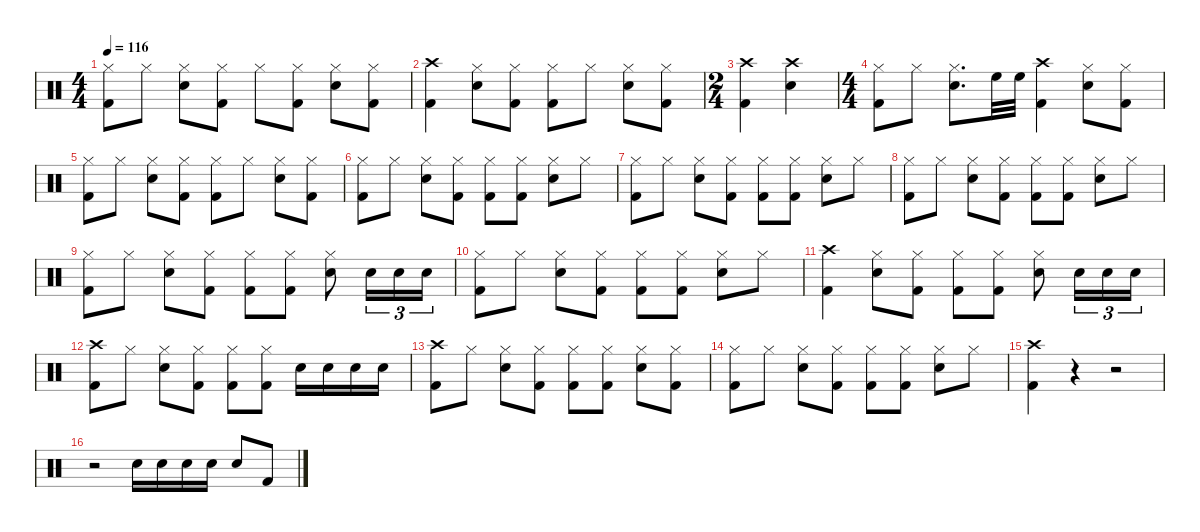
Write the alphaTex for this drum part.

\defaultSystemsLayout 4
\hideDynamics
\bracketExtendMode nobrackets
\singleTrackTrackNamePolicy hidden
\multiTrackTrackNamePolicy hidden
\firstSystemTrackNameMode fullname
\firstSystemTrackNameOrientation horizontal
\otherSystemsTrackNameOrientation horizontal
\track ("Drums" "drm.") {instrument percussion}
\staff {score}
\articulation defaults
\ts (4 4)
\tempo 116
\clef neutral
\ks c
("Hi-Hat (closed)" "Kick (hit) 2").8{dy f beam Down} "Hi-Hat (closed)".8{beam Down} ("Hi-Hat (closed)" "Snare (hit) 2").8{beam Down} ("Hi-Hat (closed)" "Kick (hit) 2").8{beam Down} "Hi-Hat (closed)".8{beam Down} ("Hi-Hat (closed)" "Kick (hit) 2").8{beam Down} ("Hi-Hat (closed)" "Snare (hit) 2").8{beam Down} ("Hi-Hat (closed)" "Kick (hit) 2").8{beam Down} |
("Crash high (hit)" "Kick (hit) 2").4{beam Down} ("Hi-Hat (closed)" "Snare (hit) 2").8{beam Down} ("Hi-Hat (closed)" "Kick (hit) 2").8{beam Down} ("Hi-Hat (closed)" "Kick (hit) 2").8{beam Down} "Hi-Hat (closed)".8{beam Down} ("Hi-Hat (closed)" "Snare (hit) 2").8{beam Down} ("Hi-Hat (closed)" "Kick (hit) 2").8{beam Down} |
\ts (2 4)
("Crash high (hit)" "Kick (hit) 2").4{beam Down} ("Crash high (hit)" "Snare (hit) 2").4{beam Down} |
\ts (4 4)
("Hi-Hat (closed)" "Kick (hit) 2").8{beam Down} "Hi-Hat (closed)".8{beam Down} ("Hi-Hat (closed)" "Snare (hit) 2").8{d beam Down} "High Floor Tom (hit)".32{beam Down} "High Floor Tom (hit)".32{beam Down} ("Crash high (hit)" "Kick (hit) 2").4{beam Down} ("Hi-Hat (closed)" "Snare (hit) 2").8{beam Down} ("Hi-Hat (closed)" "Kick (hit) 2").8{beam Down} |
("Hi-Hat (closed)" "Kick (hit) 2").8{beam Down} "Hi-Hat (closed)".8{beam Down} ("Hi-Hat (closed)" "Snare (hit) 2").8{beam Down} ("Hi-Hat (closed)" "Kick (hit) 2").8{beam Down} ("Hi-Hat (closed)" "Kick (hit) 2").8{beam Down} "Hi-Hat (closed)".8{beam Down} ("Hi-Hat (closed)" "Snare (hit) 2").8{beam Down} ("Hi-Hat (closed)" "Kick (hit) 2").8{beam Down} |
("Hi-Hat (closed)" "Kick (hit) 2").8{beam Down} "Hi-Hat (closed)".8{beam Down} ("Hi-Hat (closed)" "Snare (hit) 2").8{beam Down} ("Hi-Hat (closed)" "Kick (hit) 2").8{beam Down} ("Hi-Hat (closed)" "Kick (hit) 2").8{beam Down} ("Hi-Hat (closed)" "Kick (hit) 2").8{beam Down} ("Hi-Hat (closed)" "Snare (hit) 2").8{beam Down} "Hi-Hat (closed)".8{beam Down} |
("Hi-Hat (closed)" "Kick (hit) 2").8{beam Down} "Hi-Hat (closed)".8{beam Down} ("Hi-Hat (closed)" "Snare (hit) 2").8{beam Down} ("Hi-Hat (closed)" "Kick (hit) 2").8{beam Down} ("Hi-Hat (closed)" "Kick (hit) 2").8{beam Down} ("Hi-Hat (closed)" "Kick (hit) 2").8{beam Down} ("Hi-Hat (closed)" "Snare (hit) 2").8{beam Down} "Hi-Hat (closed)".8{beam Down} |
("Hi-Hat (closed)" "Kick (hit) 2").8{beam Down} "Hi-Hat (closed)".8{beam Down} ("Hi-Hat (closed)" "Snare (hit) 2").8{beam Down} ("Hi-Hat (closed)" "Kick (hit) 2").8{beam Down} ("Hi-Hat (closed)" "Kick (hit) 2").8{beam Down} ("Hi-Hat (closed)" "Kick (hit) 2").8{beam Down} ("Hi-Hat (closed)" "Snare (hit) 2").8{beam Down} "Hi-Hat (closed)".8{beam Down} |
("Hi-Hat (closed)" "Kick (hit) 2").8{beam Down} "Hi-Hat (closed)".8{beam Down} ("Hi-Hat (closed)" "Snare (hit) 2").8{beam Down} ("Hi-Hat (closed)" "Kick (hit) 2").8{beam Down} ("Hi-Hat (closed)" "Kick (hit) 2").8{beam Down} ("Hi-Hat (closed)" "Kick (hit) 2").8{beam Down} ("Hi-Hat (closed)" "Snare (hit) 2").8{beam Down} "Snare (hit) 2".16{tu (3 2) beam Down} "Snare (hit) 2".16{tu (3 2) beam Down} "Snare (hit) 2".16{tu (3 2) beam Down} |
("Hi-Hat (closed)" "Kick (hit) 2").8{beam Down} "Hi-Hat (closed)".8{beam Down} ("Hi-Hat (closed)" "Snare (hit) 2").8{beam Down} ("Hi-Hat (closed)" "Kick (hit) 2").8{beam Down} ("Hi-Hat (closed)" "Kick (hit) 2").8{beam Down} ("Hi-Hat (closed)" "Kick (hit) 2").8{beam Down} ("Hi-Hat (closed)" "Snare (hit) 2").8{beam Down} "Hi-Hat (closed)".8{beam Down} |
("Crash high (hit)" "Kick (hit) 2").4{beam Down} ("Hi-Hat (closed)" "Snare (hit) 2").8{beam Down} ("Hi-Hat (closed)" "Kick (hit) 2").8{beam Down} ("Hi-Hat (closed)" "Kick (hit) 2").8{beam Down} ("Hi-Hat (closed)" "Kick (hit) 2").8{beam Down} ("Hi-Hat (closed)" "Snare (hit) 2").8{beam Down} "Snare (hit) 2".16{tu (3 2) beam Down} "Snare (hit) 2".16{tu (3 2) beam Down} "Snare (hit) 2".16{tu (3 2) beam Down} |
("Crash high (hit)" "Kick (hit) 2").8{beam Down} "Hi-Hat (closed)".8{beam Down} ("Hi-Hat (closed)" "Snare (hit) 2").8{beam Down} ("Hi-Hat (closed)" "Kick (hit) 2").8{beam Down} ("Hi-Hat (closed)" "Kick (hit) 2").8{beam Down} ("Hi-Hat (closed)" "Kick (hit) 2").8{beam Down} "Snare (hit) 2".16{beam Down} "Snare (hit) 2".16{beam Down} "Snare (hit) 2".16{beam Down} "Snare (hit) 2".16{beam Down} |
("Crash high (hit)" "Kick (hit) 2").8{beam Down} "Hi-Hat (closed)".8{beam Down} ("Hi-Hat (closed)" "Snare (hit) 2").8{beam Down} ("Hi-Hat (closed)" "Kick (hit) 2").8{beam Down} ("Hi-Hat (closed)" "Kick (hit) 2").8{beam Down} ("Hi-Hat (closed)" "Kick (hit) 2").8{beam Down} ("Hi-Hat (closed)" "Snare (hit) 2").8{beam Down} ("Hi-Hat (closed)" "Kick (hit) 2").8{beam Down} |
("Hi-Hat (closed)" "Kick (hit) 2").8{beam Down} "Hi-Hat (closed)".8{beam Down} ("Hi-Hat (closed)" "Snare (hit) 2").8{beam Down} ("Hi-Hat (closed)" "Kick (hit) 2").8{beam Down} ("Hi-Hat (closed)" "Kick (hit) 2").8{beam Down} ("Hi-Hat (closed)" "Kick (hit) 2").8{beam Down} ("Hi-Hat (closed)" "Snare (hit) 2").8{beam Down} "Hi-Hat (closed)".8{beam Down} |
("Crash high (hit)" "Kick (hit) 2").4{beam Down} r.4{beam Down} r.2{beam Down} |
r.2{beam Down} "Snare (hit) 2".16{beam Down} "Snare (hit) 2".16{beam Down} "Snare (hit) 2".16{beam Down} "Snare (hit) 2".16{beam Down} "Snare (hit) 2".8{beam Up} "Kick (hit) 2".8{beam Up}
